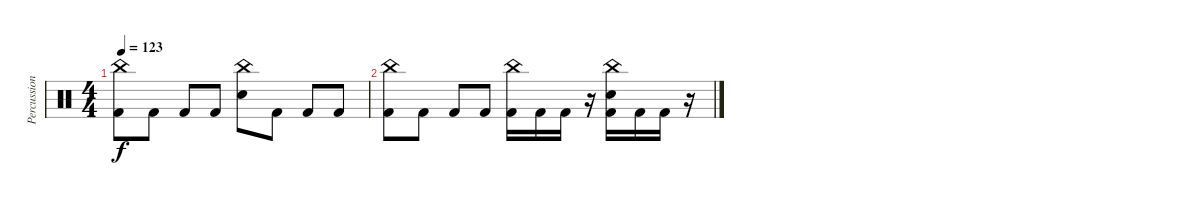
\track ("Percussion" "Percussion") {instrument percussion}
\staff {score}
\articulation defaults
\ts (4 4)
\tempo 123
\clef neutral
\ks c
("China (hit)" "Kick (hit) 2").8{dy f} "Kick (hit) 2".8 "Kick (hit) 2".8 "Kick (hit) 2".8 ("China (hit)" "Snare (hit) 2").8 "Kick (hit) 2".8 "Kick (hit) 2".8 "Kick (hit) 2".8 |
("China (hit)" "Kick (hit) 2").8 "Kick (hit) 2".8 "Kick (hit) 2".8 "Kick (hit) 2".8 ("China (hit)" "Kick (hit) 2").16 "Kick (hit) 2".16 "Kick (hit) 2".16 r.16 ("China (hit)" "Snare (hit) 2" "Kick (hit) 2").16 "Kick (hit) 2".16 "Kick (hit) 2".16 r.16
